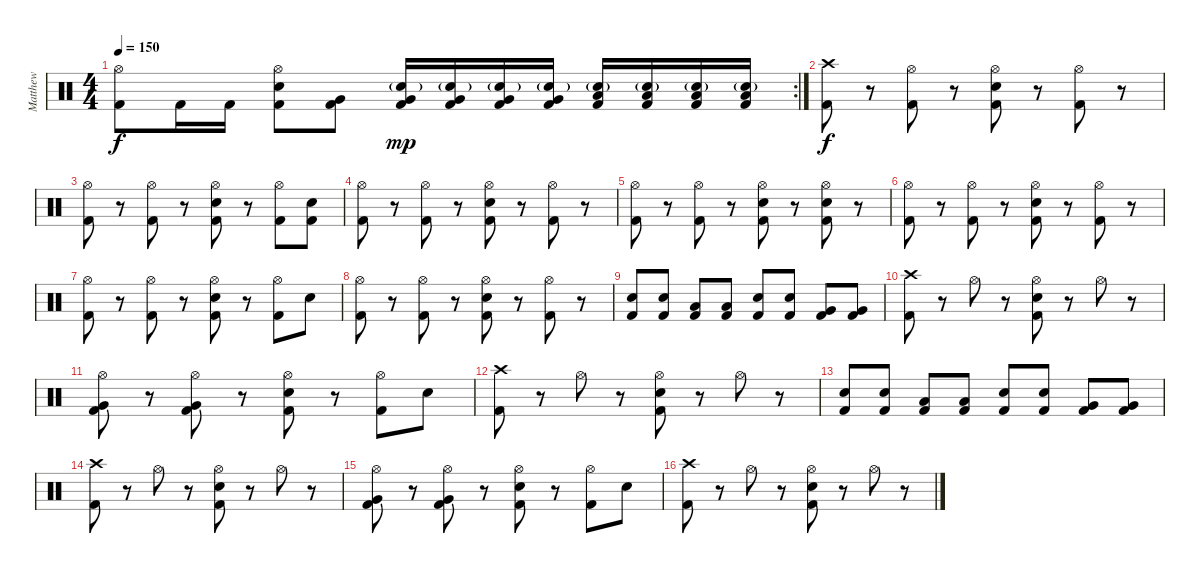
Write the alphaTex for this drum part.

\track ("Matthew" "Matthew") {instrument percussion}
\staff {score}
\articulation defaults
\rc 2
\ts (4 4)
\tempo 150
\clef neutral
\ks c
("Hi-Hat (open)" "Kick (hit) 2").8{dy f} "Kick (hit) 2".16 "Kick (hit) 2".16 ("Hi-Hat (open)" "Snare (hit) 2" "Kick (hit) 2").8 ("Very Low Tom (hit)" "Kick (hit) 2").8 ("Snare (hit) 2"{g} "Very Low Tom (hit)" "Kick (hit) 2").16{dy mp} ("Snare (hit) 2"{g} "Very Low Tom (hit)" "Kick (hit) 2").16 ("Snare (hit) 2"{g} "Very Low Tom (hit)" "Kick (hit) 2").16 ("Snare (hit) 2"{g} "Very Low Tom (hit)" "Kick (hit) 2").16 ("Snare (hit) 2"{g} "Low Floor Tom (hit)" "Kick (hit) 2").16 ("Snare (hit) 2"{g} "Low Floor Tom (hit)" "Kick (hit) 2").16 ("Snare (hit) 2"{g} "Low Floor Tom (hit)" "Kick (hit) 2").16 ("Snare (hit) 2"{g} "Low Floor Tom (hit)" "Kick (hit) 2").16 |
("Crash high (hit)" "Kick (hit) 2").8{dy f} r.8 ("Hi-Hat (open)" "Kick (hit) 2").8 r.8 ("Hi-Hat (open)" "Snare (hit) 2" "Kick (hit) 2").8 r.8 ("Hi-Hat (open)" "Kick (hit) 2").8 r.8 |
("Hi-Hat (open)" "Kick (hit) 2").8 r.8 ("Hi-Hat (open)" "Kick (hit) 2").8 r.8 ("Hi-Hat (open)" "Snare (hit) 2" "Kick (hit) 2").8 r.8 ("Hi-Hat (open)" "Kick (hit) 2").8 ("Snare (hit) 2" "Kick (hit) 2").8 |
("Hi-Hat (open)" "Kick (hit) 2").8 r.8 ("Hi-Hat (open)" "Kick (hit) 2").8 r.8 ("Hi-Hat (open)" "Snare (hit) 2" "Kick (hit) 2").8 r.8 ("Hi-Hat (open)" "Kick (hit) 2").8 r.8 |
("Hi-Hat (open)" "Kick (hit) 2").8 r.8 ("Hi-Hat (open)" "Kick (hit) 2").8 r.8 ("Hi-Hat (open)" "Snare (hit) 2" "Kick (hit) 2").8 r.8 ("Hi-Hat (open)" "Snare (hit) 2" "Kick (hit) 2").8 r.8 |
("Hi-Hat (open)" "Kick (hit) 2").8 r.8 ("Hi-Hat (open)" "Kick (hit) 2").8 r.8 ("Hi-Hat (open)" "Snare (hit) 2" "Kick (hit) 2").8 r.8 ("Hi-Hat (open)" "Kick (hit) 2").8 r.8 |
("Hi-Hat (open)" "Kick (hit) 2").8 r.8 ("Hi-Hat (open)" "Kick (hit) 2").8 r.8 ("Hi-Hat (open)" "Snare (hit) 2" "Kick (hit) 2").8 r.8 ("Hi-Hat (open)" "Kick (hit) 2").8 "Snare (hit) 2".8 |
("Hi-Hat (open)" "Kick (hit) 2").8 r.8 ("Hi-Hat (open)" "Kick (hit) 2").8 r.8 ("Hi-Hat (open)" "Snare (hit) 2" "Kick (hit) 2").8 r.8 ("Hi-Hat (open)" "Kick (hit) 2").8 r.8 |
("Electric Snare (hit)" "Kick (hit) 2").8 ("Electric Snare (hit)" "Kick (hit) 2").8 ("Low Tom (hit)" "Kick (hit) 2").8 ("Low Tom (hit)" "Kick (hit) 2").8 ("Electric Snare (hit)" "Kick (hit) 2").8 ("Electric Snare (hit)" "Kick (hit) 2").8 ("Very Low Tom (hit)" "Kick (hit) 2").8 ("Very Low Tom (hit)" "Kick (hit) 2").8 |
("Crash high (hit)" "Kick (hit) 2").8 r.8 "Hi-Hat (open)".8 r.8 ("Hi-Hat (open)" "Snare (hit) 2" "Kick (hit) 2").8 r.8 "Hi-Hat (open)".8 r.8 |
("Hi-Hat (open)" "Very Low Tom (hit)" "Kick (hit) 2").8 r.8 ("Hi-Hat (open)" "Very Low Tom (hit)" "Kick (hit) 2").8 r.8 ("Hi-Hat (open)" "Snare (hit) 2" "Kick (hit) 2").8 r.8 ("Hi-Hat (open)" "Kick (hit) 2").8 "Snare (hit) 2".8 |
("Crash high (hit)" "Kick (hit) 2").8 r.8 "Hi-Hat (open)".8 r.8 ("Hi-Hat (open)" "Snare (hit) 2" "Kick (hit) 2").8 r.8 "Hi-Hat (open)".8 r.8 |
("Electric Snare (hit)" "Kick (hit) 2").8 ("Electric Snare (hit)" "Kick (hit) 2").8 ("Low Tom (hit)" "Kick (hit) 2").8 ("Low Tom (hit)" "Kick (hit) 2").8 ("Electric Snare (hit)" "Kick (hit) 2").8 ("Electric Snare (hit)" "Kick (hit) 2").8 ("Very Low Tom (hit)" "Kick (hit) 2").8 ("Very Low Tom (hit)" "Kick (hit) 2").8 |
("Crash high (hit)" "Kick (hit) 2").8 r.8 "Hi-Hat (open)".8 r.8 ("Hi-Hat (open)" "Snare (hit) 2" "Kick (hit) 2").8 r.8 "Hi-Hat (open)".8 r.8 |
("Hi-Hat (open)" "Very Low Tom (hit)" "Kick (hit) 2").8 r.8 ("Hi-Hat (open)" "Very Low Tom (hit)" "Kick (hit) 2").8 r.8 ("Hi-Hat (open)" "Snare (hit) 2" "Kick (hit) 2").8 r.8 ("Hi-Hat (open)" "Kick (hit) 2").8 "Snare (hit) 2".8 |
("Crash high (hit)" "Kick (hit) 2").8 r.8 "Hi-Hat (open)".8 r.8 ("Hi-Hat (open)" "Snare (hit) 2" "Kick (hit) 2").8 r.8 "Hi-Hat (open)".8 r.8
